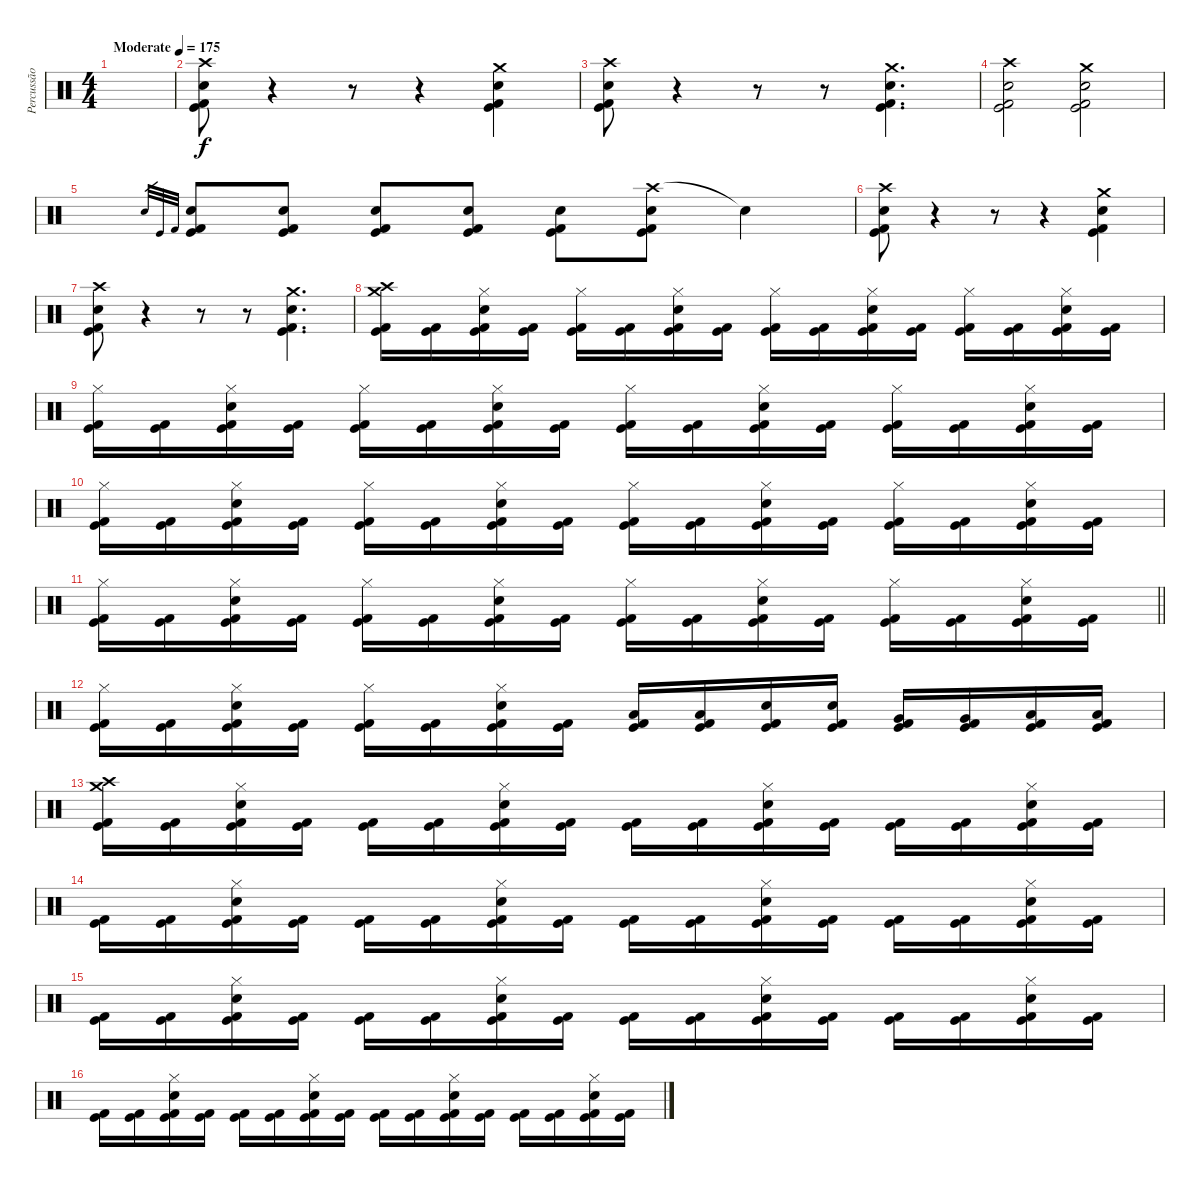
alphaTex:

\track ("Percussão" "Percussão") {instrument percussion}
\staff {score}
\articulation defaults
\ts (4 4)
\tempo (175 "Moderate")
\clef neutral
\ks c
|
("Crash high (hit)" "Electric Snare (hit)" "Kick (hit)" "Kick (hit) 2").8 r.4 r.8 r.4 ("Electric Snare (hit)" "Crash medium (hit)" "Kick (hit) 2" "Kick (hit)").4 |
("Crash high (hit)" "Electric Snare (hit)" "Kick (hit) 2" "Kick (hit)").8 r.4 r.8 r.8 ("Electric Snare (hit)" "Crash medium (hit)" "Kick (hit)" "Kick (hit) 2").4{d} |
("Electric Snare (hit)" "Crash high (hit)" "Kick (hit)" "Kick (hit) 2").2 ("Electric Snare (hit)" "Crash medium (hit)" "Kick (hit)" "Kick (hit) 2").2 |
"Electric Snare (hit)".32{gr} "Kick (hit)".32{gr} "Kick (hit) 2".32{gr} ("Electric Snare (hit)" "Kick (hit)" "Kick (hit) 2").8 ("Electric Snare (hit)" "Kick (hit)" "Kick (hit) 2").8 ("Electric Snare (hit)" "Kick (hit)" "Kick (hit) 2").8 ("Electric Snare (hit)" "Kick (hit)" "Kick (hit) 2").8 ("Electric Snare (hit)" "Kick (hit)" "Kick (hit) 2").8 ("Crash high (hit)" "Electric Snare (hit)" "Kick (hit)" "Kick (hit) 2").8 "Snare (hit)"{t}.4 |
("Crash high (hit)" "Electric Snare (hit)" "Kick (hit)" "Kick (hit) 2").8 r.4 r.8 r.4 ("Electric Snare (hit)" "Crash medium (hit)" "Kick (hit) 2" "Kick (hit)").4 |
("Crash high (hit)" "Electric Snare (hit)" "Kick (hit) 2" "Kick (hit)").8 r.4 r.8 r.8 ("Electric Snare (hit)" "Crash medium (hit)" "Kick (hit)" "Kick (hit) 2").4{d} |
("Crash high (hit)" "Crash medium (hit)" "Kick (hit)" "Kick (hit) 2").16 ("Kick (hit)" "Kick (hit) 2").16 ("Hi-Hat (closed)" "Electric Snare (hit)" "Kick (hit)" "Kick (hit) 2").16 ("Kick (hit)" "Kick (hit) 2").16 ("Hi-Hat (closed)" "Kick (hit)" "Kick (hit) 2").16 ("Kick (hit)" "Kick (hit) 2").16 ("Hi-Hat (closed)" "Electric Snare (hit)" "Kick (hit)" "Kick (hit) 2").16 ("Kick (hit)" "Kick (hit) 2").16 ("Hi-Hat (closed)" "Kick (hit)" "Kick (hit) 2").16 ("Kick (hit)" "Kick (hit) 2").16 ("Hi-Hat (closed)" "Electric Snare (hit)" "Kick (hit)" "Kick (hit) 2").16 ("Kick (hit)" "Kick (hit) 2").16 ("Hi-Hat (closed)" "Kick (hit)" "Kick (hit) 2").16 ("Kick (hit)" "Kick (hit) 2").16 ("Hi-Hat (closed)" "Electric Snare (hit)" "Kick (hit)" "Kick (hit) 2").16 ("Kick (hit)" "Kick (hit) 2").16 |
("Hi-Hat (closed)" "Kick (hit)" "Kick (hit) 2").16 ("Kick (hit)" "Kick (hit) 2").16 ("Hi-Hat (closed)" "Electric Snare (hit)" "Kick (hit)" "Kick (hit) 2").16 ("Kick (hit)" "Kick (hit) 2").16 ("Hi-Hat (closed)" "Kick (hit)" "Kick (hit) 2").16 ("Kick (hit)" "Kick (hit) 2").16 ("Hi-Hat (closed)" "Electric Snare (hit)" "Kick (hit)" "Kick (hit) 2").16 ("Kick (hit)" "Kick (hit) 2").16 ("Hi-Hat (closed)" "Kick (hit)" "Kick (hit) 2").16 ("Kick (hit)" "Kick (hit) 2").16 ("Hi-Hat (closed)" "Electric Snare (hit)" "Kick (hit)" "Kick (hit) 2").16 ("Kick (hit)" "Kick (hit) 2").16 ("Hi-Hat (closed)" "Kick (hit)" "Kick (hit) 2").16 ("Kick (hit)" "Kick (hit) 2").16 ("Hi-Hat (closed)" "Electric Snare (hit)" "Kick (hit)" "Kick (hit) 2").16 ("Kick (hit)" "Kick (hit) 2").16 |
("Hi-Hat (closed)" "Kick (hit)" "Kick (hit) 2").16 ("Kick (hit)" "Kick (hit) 2").16 ("Hi-Hat (closed)" "Electric Snare (hit)" "Kick (hit)" "Kick (hit) 2").16 ("Kick (hit)" "Kick (hit) 2").16 ("Hi-Hat (closed)" "Kick (hit)" "Kick (hit) 2").16 ("Kick (hit)" "Kick (hit) 2").16 ("Hi-Hat (closed)" "Electric Snare (hit)" "Kick (hit)" "Kick (hit) 2").16 ("Kick (hit)" "Kick (hit) 2").16 ("Hi-Hat (closed)" "Kick (hit)" "Kick (hit) 2").16 ("Kick (hit)" "Kick (hit) 2").16 ("Hi-Hat (closed)" "Electric Snare (hit)" "Kick (hit)" "Kick (hit) 2").16 ("Kick (hit)" "Kick (hit) 2").16 ("Hi-Hat (closed)" "Kick (hit)" "Kick (hit) 2").16 ("Kick (hit)" "Kick (hit) 2").16 ("Hi-Hat (closed)" "Electric Snare (hit)" "Kick (hit)" "Kick (hit) 2").16 ("Kick (hit)" "Kick (hit) 2").16 |
\barLineRight lightlight
("Hi-Hat (closed)" "Kick (hit)" "Kick (hit) 2").16 ("Kick (hit)" "Kick (hit) 2").16 ("Hi-Hat (closed)" "Electric Snare (hit)" "Kick (hit)" "Kick (hit) 2").16 ("Kick (hit)" "Kick (hit) 2").16 ("Hi-Hat (closed)" "Kick (hit)" "Kick (hit) 2").16 ("Kick (hit)" "Kick (hit) 2").16 ("Hi-Hat (closed)" "Electric Snare (hit)" "Kick (hit)" "Kick (hit) 2").16 ("Kick (hit)" "Kick (hit) 2").16 ("Hi-Hat (closed)" "Kick (hit)" "Kick (hit) 2").16 ("Kick (hit)" "Kick (hit) 2").16 ("Hi-Hat (closed)" "Electric Snare (hit)" "Kick (hit)" "Kick (hit) 2").16 ("Kick (hit)" "Kick (hit) 2").16 ("Hi-Hat (closed)" "Kick (hit)" "Kick (hit) 2").16 ("Kick (hit)" "Kick (hit) 2").16 ("Hi-Hat (closed)" "Electric Snare (hit)" "Kick (hit)" "Kick (hit) 2").16 ("Kick (hit)" "Kick (hit) 2").16 |
\section ("" "")
("Hi-Hat (closed)" "Kick (hit)" "Kick (hit) 2").16 ("Kick (hit)" "Kick (hit) 2").16 ("Hi-Hat (closed)" "Electric Snare (hit)" "Kick (hit)" "Kick (hit) 2").16 ("Kick (hit)" "Kick (hit) 2").16 ("Hi-Hat (closed)" "Kick (hit)" "Kick (hit) 2").16 ("Kick (hit)" "Kick (hit) 2").16 ("Hi-Hat (closed)" "Electric Snare (hit)" "Kick (hit)" "Kick (hit) 2").16 ("Kick (hit)" "Kick (hit) 2").16 ("Low Tom (hit)" "Kick (hit)" "Kick (hit) 2").16 ("Low Tom (hit)" "Kick (hit)" "Kick (hit) 2").16 ("Electric Snare (hit)" "Kick (hit)" "Kick (hit) 2").16 ("Electric Snare (hit)" "Kick (hit)" "Kick (hit) 2").16 ("Very Low Tom (hit)" "Kick (hit)" "Kick (hit) 2").16 ("Very Low Tom (hit)" "Kick (hit)" "Kick (hit) 2").16 ("Low Tom (hit)" "Kick (hit)" "Kick (hit) 2").16 ("Low Tom (hit)" "Kick (hit)" "Kick (hit) 2").16 |
("Crash high (hit)" "Crash medium (hit)" "Kick (hit)" "Kick (hit) 2").16 ("Kick (hit)" "Kick (hit) 2").16 ("Hi-Hat (closed)" "Electric Snare (hit)" "Kick (hit)" "Kick (hit) 2").16 ("Kick (hit)" "Kick (hit) 2").16 ("Kick (hit)" "Kick (hit) 2").16 ("Kick (hit)" "Kick (hit) 2").16 ("Hi-Hat (closed)" "Electric Snare (hit)" "Kick (hit)" "Kick (hit) 2").16 ("Kick (hit)" "Kick (hit) 2").16 ("Kick (hit)" "Kick (hit) 2").16 ("Kick (hit)" "Kick (hit) 2").16 ("Hi-Hat (closed)" "Electric Snare (hit)" "Kick (hit)" "Kick (hit) 2").16 ("Kick (hit)" "Kick (hit) 2").16 ("Kick (hit)" "Kick (hit) 2").16 ("Kick (hit)" "Kick (hit) 2").16 ("Hi-Hat (closed)" "Electric Snare (hit)" "Kick (hit)" "Kick (hit) 2").16 ("Kick (hit)" "Kick (hit) 2").16 |
("Kick (hit)" "Kick (hit) 2").16 ("Kick (hit)" "Kick (hit) 2").16 ("Hi-Hat (closed)" "Electric Snare (hit)" "Kick (hit)" "Kick (hit) 2").16 ("Kick (hit)" "Kick (hit) 2").16 ("Kick (hit)" "Kick (hit) 2").16 ("Kick (hit)" "Kick (hit) 2").16 ("Hi-Hat (closed)" "Electric Snare (hit)" "Kick (hit)" "Kick (hit) 2").16 ("Kick (hit)" "Kick (hit) 2").16 ("Kick (hit)" "Kick (hit) 2").16 ("Kick (hit)" "Kick (hit) 2").16 ("Hi-Hat (closed)" "Electric Snare (hit)" "Kick (hit)" "Kick (hit) 2").16 ("Kick (hit)" "Kick (hit) 2").16 ("Kick (hit)" "Kick (hit) 2").16 ("Kick (hit)" "Kick (hit) 2").16 ("Hi-Hat (closed)" "Electric Snare (hit)" "Kick (hit)" "Kick (hit) 2").16 ("Kick (hit)" "Kick (hit) 2").16 |
("Kick (hit)" "Kick (hit) 2").16 ("Kick (hit)" "Kick (hit) 2").16 ("Hi-Hat (closed)" "Electric Snare (hit)" "Kick (hit)" "Kick (hit) 2").16 ("Kick (hit)" "Kick (hit) 2").16 ("Kick (hit)" "Kick (hit) 2").16 ("Kick (hit)" "Kick (hit) 2").16 ("Hi-Hat (closed)" "Electric Snare (hit)" "Kick (hit)" "Kick (hit) 2").16 ("Kick (hit)" "Kick (hit) 2").16 ("Kick (hit)" "Kick (hit) 2").16 ("Kick (hit)" "Kick (hit) 2").16 ("Hi-Hat (closed)" "Electric Snare (hit)" "Kick (hit)" "Kick (hit) 2").16 ("Kick (hit)" "Kick (hit) 2").16 ("Kick (hit)" "Kick (hit) 2").16 ("Kick (hit)" "Kick (hit) 2").16 ("Hi-Hat (closed)" "Electric Snare (hit)" "Kick (hit)" "Kick (hit) 2").16 ("Kick (hit)" "Kick (hit) 2").16 |
("Kick (hit)" "Kick (hit) 2").16 ("Kick (hit)" "Kick (hit) 2").16 ("Hi-Hat (closed)" "Electric Snare (hit)" "Kick (hit)" "Kick (hit) 2").16 ("Kick (hit)" "Kick (hit) 2").16 ("Kick (hit)" "Kick (hit) 2").16 ("Kick (hit)" "Kick (hit) 2").16 ("Hi-Hat (closed)" "Electric Snare (hit)" "Kick (hit)" "Kick (hit) 2").16 ("Kick (hit)" "Kick (hit) 2").16 ("Kick (hit)" "Kick (hit) 2").16 ("Kick (hit)" "Kick (hit) 2").16 ("Hi-Hat (closed)" "Electric Snare (hit)" "Kick (hit)" "Kick (hit) 2").16 ("Kick (hit)" "Kick (hit) 2").16 ("Kick (hit)" "Kick (hit) 2").16 ("Kick (hit)" "Kick (hit) 2").16 ("Hi-Hat (closed)" "Electric Snare (hit)" "Kick (hit)" "Kick (hit) 2").16 ("Kick (hit)" "Kick (hit) 2").16
